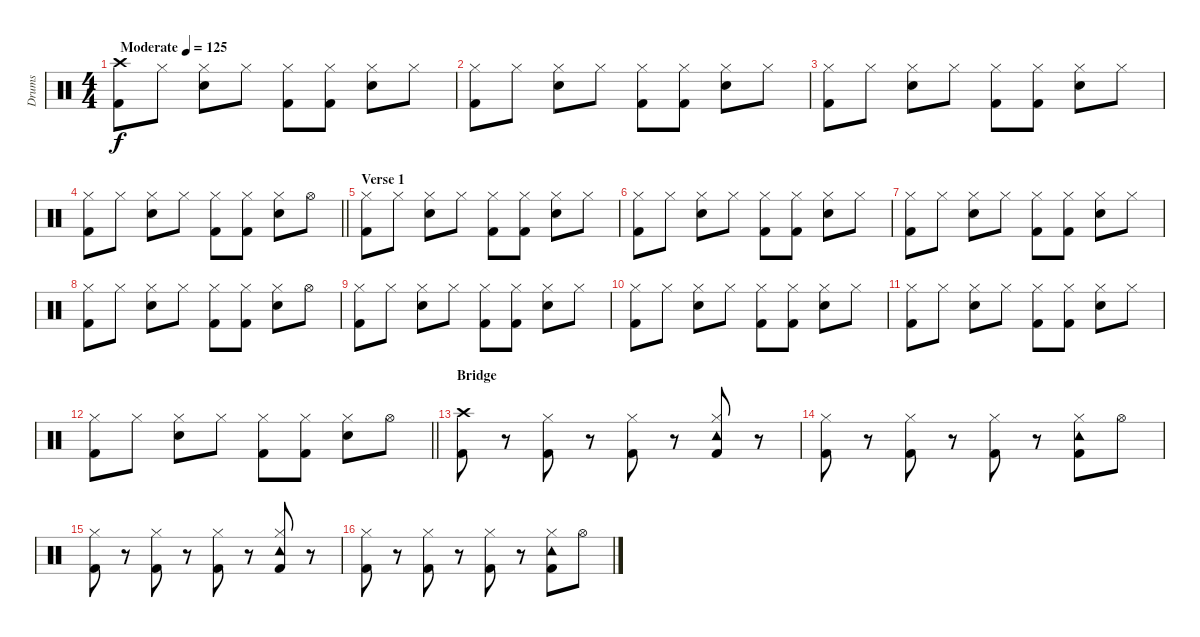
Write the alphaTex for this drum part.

\track ("Drums" "Drums") {instrument percussion}
\staff {score}
\articulation defaults
\ts (4 4)
\tempo (125 "Moderate")
\clef neutral
\ks c
("Crash high (hit)" "Kick (hit) 2").8{dy f} "Hi-Hat (closed)".8 ("Hi-Hat (closed)" "Snare (hit) 2").8 "Hi-Hat (closed)".8 ("Hi-Hat (closed)" "Kick (hit) 2").8 ("Hi-Hat (closed)" "Kick (hit) 2").8 ("Hi-Hat (closed)" "Snare (hit) 2").8 "Hi-Hat (closed)".8 |
("Hi-Hat (closed)" "Kick (hit) 2").8 "Hi-Hat (closed)".8 ("Hi-Hat (closed)" "Snare (hit) 2").8 "Hi-Hat (closed)".8 ("Hi-Hat (closed)" "Kick (hit) 2").8 ("Hi-Hat (closed)" "Kick (hit) 2").8 ("Hi-Hat (closed)" "Snare (hit) 2").8 "Hi-Hat (closed)".8 |
("Hi-Hat (closed)" "Kick (hit) 2").8 "Hi-Hat (closed)".8 ("Hi-Hat (closed)" "Snare (hit) 2").8 "Hi-Hat (closed)".8 ("Hi-Hat (closed)" "Kick (hit) 2").8 ("Hi-Hat (closed)" "Kick (hit) 2").8 ("Hi-Hat (closed)" "Snare (hit) 2").8 "Hi-Hat (closed)".8 |
\barLineRight lightlight
("Hi-Hat (closed)" "Kick (hit) 2").8 "Hi-Hat (closed)".8 ("Hi-Hat (closed)" "Snare (hit) 2").8 "Hi-Hat (closed)".8 ("Hi-Hat (closed)" "Kick (hit) 2").8 ("Hi-Hat (closed)" "Kick (hit) 2").8 ("Hi-Hat (closed)" "Snare (hit) 2").8 "Hi-Hat (open)".8 |
\section ("" "Verse 1")
("Hi-Hat (closed)" "Kick (hit) 2").8 "Hi-Hat (closed)".8 ("Hi-Hat (closed)" "Snare (hit) 2").8 "Hi-Hat (closed)".8 ("Hi-Hat (closed)" "Kick (hit) 2").8 ("Hi-Hat (closed)" "Kick (hit) 2").8 ("Hi-Hat (closed)" "Snare (hit) 2").8 "Hi-Hat (closed)".8 |
("Hi-Hat (closed)" "Kick (hit) 2").8 "Hi-Hat (closed)".8 ("Hi-Hat (closed)" "Snare (hit) 2").8 "Hi-Hat (closed)".8 ("Hi-Hat (closed)" "Kick (hit) 2").8 ("Hi-Hat (closed)" "Kick (hit) 2").8 ("Hi-Hat (closed)" "Snare (hit) 2").8 "Hi-Hat (closed)".8 |
("Hi-Hat (closed)" "Kick (hit) 2").8 "Hi-Hat (closed)".8 ("Hi-Hat (closed)" "Snare (hit) 2").8 "Hi-Hat (closed)".8 ("Hi-Hat (closed)" "Kick (hit) 2").8 ("Hi-Hat (closed)" "Kick (hit) 2").8 ("Hi-Hat (closed)" "Snare (hit) 2").8 "Hi-Hat (closed)".8 |
("Hi-Hat (closed)" "Kick (hit) 2").8 "Hi-Hat (closed)".8 ("Hi-Hat (closed)" "Snare (hit) 2").8 "Hi-Hat (closed)".8 ("Hi-Hat (closed)" "Kick (hit) 2").8 ("Hi-Hat (closed)" "Kick (hit) 2").8 ("Hi-Hat (closed)" "Snare (hit) 2").8 "Hi-Hat (open)".8 |
("Hi-Hat (closed)" "Kick (hit) 2").8 "Hi-Hat (closed)".8 ("Hi-Hat (closed)" "Snare (hit) 2").8 "Hi-Hat (closed)".8 ("Hi-Hat (closed)" "Kick (hit) 2").8 ("Hi-Hat (closed)" "Kick (hit) 2").8 ("Hi-Hat (closed)" "Snare (hit) 2").8 "Hi-Hat (closed)".8 |
("Hi-Hat (closed)" "Kick (hit) 2").8 "Hi-Hat (closed)".8 ("Hi-Hat (closed)" "Snare (hit) 2").8 "Hi-Hat (closed)".8 ("Hi-Hat (closed)" "Kick (hit) 2").8 ("Hi-Hat (closed)" "Kick (hit) 2").8 ("Hi-Hat (closed)" "Snare (hit) 2").8 "Hi-Hat (closed)".8 |
("Hi-Hat (closed)" "Kick (hit) 2").8 "Hi-Hat (closed)".8 ("Hi-Hat (closed)" "Snare (hit) 2").8 "Hi-Hat (closed)".8 ("Hi-Hat (closed)" "Kick (hit) 2").8 ("Hi-Hat (closed)" "Kick (hit) 2").8 ("Hi-Hat (closed)" "Snare (hit) 2").8 "Hi-Hat (closed)".8 |
\barLineRight lightlight
("Hi-Hat (closed)" "Kick (hit) 2").8 "Hi-Hat (closed)".8 ("Hi-Hat (closed)" "Snare (hit) 2").8 "Hi-Hat (closed)".8 ("Hi-Hat (closed)" "Kick (hit) 2").8 ("Hi-Hat (closed)" "Kick (hit) 2").8 ("Hi-Hat (closed)" "Snare (hit) 2").8 "Hi-Hat (open)".8 |
\section ("" "Bridge")
("Crash high (hit)" "Kick (hit) 2").8 r.8 ("Hi-Hat (closed)" "Kick (hit) 2").8 r.8 ("Hi-Hat (closed)" "Kick (hit) 2").8 r.8 ("Tambourine (hit)" "Hi-Hat (closed)" "Kick (hit) 2").8 r.8 |
("Hi-Hat (closed)" "Kick (hit) 2").8 r.8 ("Hi-Hat (closed)" "Kick (hit) 2").8 r.8 ("Hi-Hat (closed)" "Kick (hit) 2").8 r.8 ("Tambourine (hit)" "Hi-Hat (closed)" "Kick (hit) 2").8 "Hi-Hat (open)".8 |
("Hi-Hat (closed)" "Kick (hit) 2").8 r.8 ("Hi-Hat (closed)" "Kick (hit) 2").8 r.8 ("Hi-Hat (closed)" "Kick (hit) 2").8 r.8 ("Tambourine (hit)" "Hi-Hat (closed)" "Kick (hit) 2").8 r.8 |
("Hi-Hat (closed)" "Kick (hit) 2").8 r.8 ("Hi-Hat (closed)" "Kick (hit) 2").8 r.8 ("Hi-Hat (closed)" "Kick (hit) 2").8 r.8 ("Tambourine (hit)" "Hi-Hat (closed)" "Kick (hit) 2").8 "Hi-Hat (open)".8
